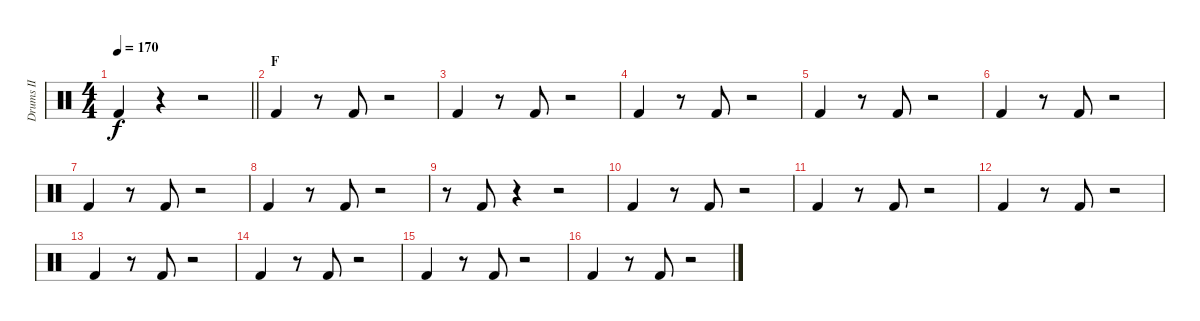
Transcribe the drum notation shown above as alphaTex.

\track ("Drums II" "Drums II") {instrument percussion}
\staff {score}
\articulation defaults
\ts (4 4)
\section ("" "")
\tempo 170
\clef neutral
\barLineRight lightlight
\ks c "Kick (hit) 2".4{dy f}
r.4 r.2 |
\section ("" "F")
"Kick (hit) 2".4 r.8 "Kick (hit) 2".8 r.2 |
"Kick (hit) 2".4 r.8 "Kick (hit) 2".8 r.2 |
"Kick (hit) 2".4 r.8 "Kick (hit) 2".8 r.2 |
"Kick (hit) 2".4 r.8 "Kick (hit) 2".8 r.2 |
"Kick (hit) 2".4 r.8 "Kick (hit) 2".8 r.2 |
"Kick (hit) 2".4 r.8 "Kick (hit) 2".8 r.2 |
"Kick (hit) 2".4 r.8 "Kick (hit) 2".8 r.2 |
r.8 "Kick (hit) 2".8 r.4 r.2 |
"Kick (hit) 2".4 r.8 "Kick (hit) 2".8 r.2 |
"Kick (hit) 2".4 r.8 "Kick (hit) 2".8 r.2 |
"Kick (hit) 2".4 r.8 "Kick (hit) 2".8 r.2 |
"Kick (hit) 2".4 r.8 "Kick (hit) 2".8 r.2 |
"Kick (hit) 2".4 r.8 "Kick (hit) 2".8 r.2 |
"Kick (hit) 2".4 r.8 "Kick (hit) 2".8 r.2 |
"Kick (hit) 2".4 r.8 "Kick (hit) 2".8 r.2
